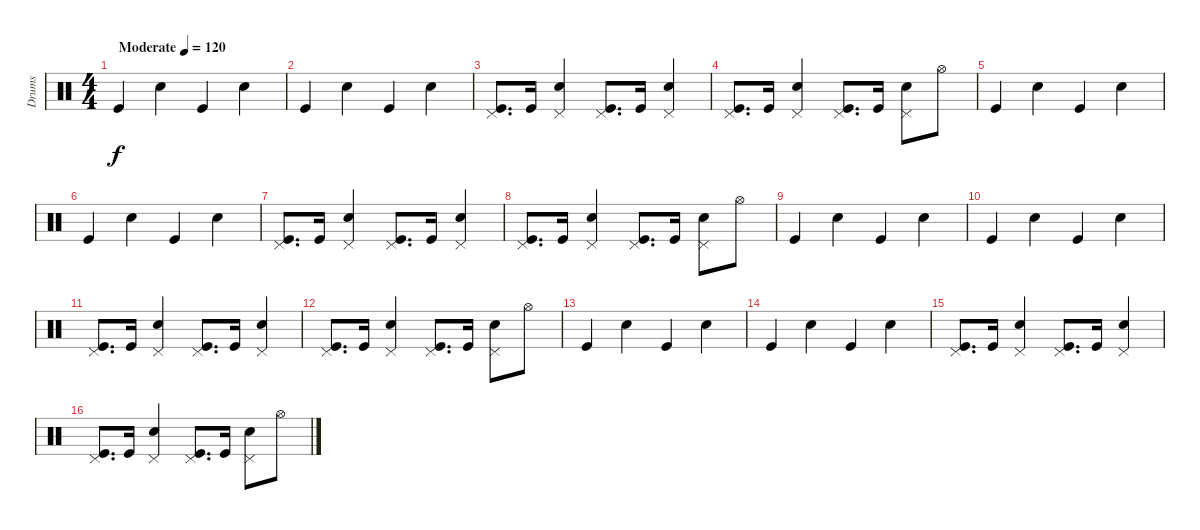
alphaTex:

\track ("Drums" "Drums") {instrument percussion}
\staff {score}
\articulation defaults
\ts (4 4)
\tempo (120 "Moderate")
\clef neutral
\ks c "Kick (hit)".4{dy f} "Snare (hit) 2".4 "Kick (hit)".4 "Snare (hit) 2".4
|
"Kick (hit)".4 "Snare (hit) 2".4 "Kick (hit)".4 "Snare (hit) 2".4 |
("Kick (hit)" "Pedal Hi-Hat (hit)").8{d} "Kick (hit)".16 ("Snare (hit) 2" "Pedal Hi-Hat (hit)").4 ("Kick (hit)" "Pedal Hi-Hat (hit)").8{d} "Kick (hit)".16 ("Snare (hit) 2" "Pedal Hi-Hat (hit)").4 |
("Kick (hit)" "Pedal Hi-Hat (hit)").8{d} "Kick (hit)".16 ("Snare (hit) 2" "Pedal Hi-Hat (hit)").4 ("Kick (hit)" "Pedal Hi-Hat (hit)").8{d} "Kick (hit)".16 ("Snare (hit) 2" "Pedal Hi-Hat (hit)").8 "Hi-Hat (open)".8 |
"Kick (hit)".4 "Snare (hit) 2".4 "Kick (hit)".4 "Snare (hit) 2".4 |
"Kick (hit)".4 "Snare (hit) 2".4 "Kick (hit)".4 "Snare (hit) 2".4 |
("Kick (hit)" "Pedal Hi-Hat (hit)").8{d} "Kick (hit)".16 ("Snare (hit) 2" "Pedal Hi-Hat (hit)").4 ("Kick (hit)" "Pedal Hi-Hat (hit)").8{d} "Kick (hit)".16 ("Snare (hit) 2" "Pedal Hi-Hat (hit)").4 |
("Kick (hit)" "Pedal Hi-Hat (hit)").8{d} "Kick (hit)".16 ("Snare (hit) 2" "Pedal Hi-Hat (hit)").4 ("Kick (hit)" "Pedal Hi-Hat (hit)").8{d} "Kick (hit)".16 ("Snare (hit) 2" "Pedal Hi-Hat (hit)").8 "Hi-Hat (open)".8 |
"Kick (hit)".4 "Snare (hit) 2".4 "Kick (hit)".4 "Snare (hit) 2".4 |
"Kick (hit)".4 "Snare (hit) 2".4 "Kick (hit)".4 "Snare (hit) 2".4 |
("Kick (hit)" "Pedal Hi-Hat (hit)").8{d} "Kick (hit)".16 ("Snare (hit) 2" "Pedal Hi-Hat (hit)").4 ("Kick (hit)" "Pedal Hi-Hat (hit)").8{d} "Kick (hit)".16 ("Snare (hit) 2" "Pedal Hi-Hat (hit)").4 |
("Kick (hit)" "Pedal Hi-Hat (hit)").8{d} "Kick (hit)".16 ("Snare (hit) 2" "Pedal Hi-Hat (hit)").4 ("Kick (hit)" "Pedal Hi-Hat (hit)").8{d} "Kick (hit)".16 ("Snare (hit) 2" "Pedal Hi-Hat (hit)").8 "Hi-Hat (open)".8 |
"Kick (hit)".4 "Snare (hit) 2".4 "Kick (hit)".4 "Snare (hit) 2".4 |
"Kick (hit)".4 "Snare (hit) 2".4 "Kick (hit)".4 "Snare (hit) 2".4 |
("Kick (hit)" "Pedal Hi-Hat (hit)").8{d} "Kick (hit)".16 ("Snare (hit) 2" "Pedal Hi-Hat (hit)").4 ("Kick (hit)" "Pedal Hi-Hat (hit)").8{d} "Kick (hit)".16 ("Snare (hit) 2" "Pedal Hi-Hat (hit)").4 |
("Kick (hit)" "Pedal Hi-Hat (hit)").8{d} "Kick (hit)".16 ("Snare (hit) 2" "Pedal Hi-Hat (hit)").4 ("Kick (hit)" "Pedal Hi-Hat (hit)").8{d} "Kick (hit)".16 ("Snare (hit) 2" "Pedal Hi-Hat (hit)").8 "Hi-Hat (open)".8
